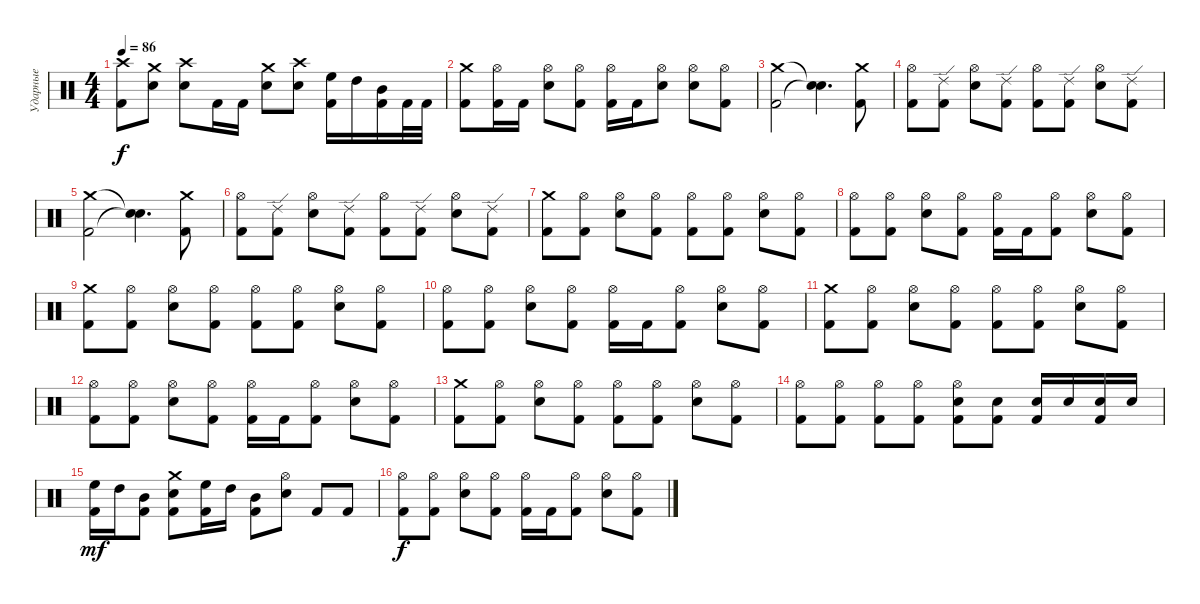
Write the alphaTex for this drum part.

\track ("Ударные" "Ударные") {instrument percussion}
\staff {score}
\articulation defaults
\ts (4 4)
\tempo 86
\clef neutral
\ks c
("Crash high (hit)" "Kick (hit) 2").8{dy f} ("Crash medium (hit)" "Electric Snare (hit)").8 ("Crash high (hit)" "Electric Snare (hit)").8 "Kick (hit) 2".16 "Kick (hit) 2".16 ("Crash medium (hit)" "Electric Snare (hit)").8 ("Crash high (hit)" "Electric Snare (hit)").8 ("High Floor Tom (hit)" "Kick (hit) 2").16 "High Tom (hit)".16 ("Mid Tom (hit)" "Kick (hit) 2").16 "Kick (hit) 2".32 "Kick (hit) 2".32 |
("Crash medium (hit)" "Kick (hit) 2").8 ("Hi-Hat (open)" "Kick (hit) 2").16 "Kick (hit) 2".16 ("Hi-Hat (open)" "Electric Snare (hit)").8 ("Hi-Hat (open)" "Kick (hit) 2").8 ("Hi-Hat (open)" "Kick (hit) 2").16 "Kick (hit) 2".16 ("Hi-Hat (open)" "Electric Snare (hit)").8 ("Hi-Hat (open)" "Electric Snare (hit)").8 ("Hi-Hat (open)" "Kick (hit) 2").8 |
("Crash medium (hit)" "Kick (hit) 2").2 ("Snare (hit)"{t} "Snare (hit)"{t}).4{d} ("Crash medium (hit)" "Kick (hit) 2").8 |
("Hi-Hat (open)" "Kick (hit) 2").8 ("Ride (edge) 2" "Kick (hit) 2").8 ("Hi-Hat (open)" "Electric Snare (hit)").8 ("Ride (edge) 2" "Kick (hit) 2").8 ("Hi-Hat (open)" "Kick (hit) 2").8 ("Ride (edge) 2" "Kick (hit) 2").8 ("Hi-Hat (open)" "Electric Snare (hit)").8 ("Ride (edge) 2" "Kick (hit) 2").8 |
("Crash medium (hit)" "Kick (hit) 2").2 ("Snare (hit)"{t} "Snare (hit)"{t}).4{d} ("Crash medium (hit)" "Kick (hit) 2").8 |
("Hi-Hat (open)" "Kick (hit) 2").8 ("Ride (edge) 2" "Kick (hit) 2").8 ("Hi-Hat (open)" "Electric Snare (hit)").8 ("Ride (edge) 2" "Kick (hit) 2").8 ("Hi-Hat (open)" "Kick (hit) 2").8 ("Ride (edge) 2" "Kick (hit) 2").8 ("Hi-Hat (open)" "Electric Snare (hit)").8 ("Ride (edge) 2" "Kick (hit) 2").8 |
("Crash medium (hit)" "Kick (hit) 2").8 ("Hi-Hat (open)" "Kick (hit) 2").8 ("Hi-Hat (open)" "Electric Snare (hit)").8 ("Hi-Hat (open)" "Kick (hit) 2").8 ("Hi-Hat (open)" "Kick (hit) 2").8 ("Hi-Hat (open)" "Kick (hit) 2").8 ("Hi-Hat (open)" "Electric Snare (hit)").8 ("Hi-Hat (open)" "Kick (hit) 2").8 |
("Hi-Hat (open)" "Kick (hit) 2").8 ("Hi-Hat (open)" "Kick (hit) 2").8 ("Hi-Hat (open)" "Electric Snare (hit)").8 ("Hi-Hat (open)" "Kick (hit) 2").8 ("Hi-Hat (open)" "Kick (hit) 2").16 "Kick (hit) 2".16 ("Hi-Hat (open)" "Kick (hit) 2").8 ("Hi-Hat (open)" "Electric Snare (hit)").8 ("Hi-Hat (open)" "Kick (hit) 2").8 |
("Crash medium (hit)" "Kick (hit) 2").8 ("Hi-Hat (open)" "Kick (hit) 2").8 ("Hi-Hat (open)" "Electric Snare (hit)").8 ("Hi-Hat (open)" "Kick (hit) 2").8 ("Hi-Hat (open)" "Kick (hit) 2").8 ("Hi-Hat (open)" "Kick (hit) 2").8 ("Hi-Hat (open)" "Electric Snare (hit)").8 ("Hi-Hat (open)" "Kick (hit) 2").8 |
("Hi-Hat (open)" "Kick (hit) 2").8 ("Hi-Hat (open)" "Kick (hit) 2").8 ("Hi-Hat (open)" "Electric Snare (hit)").8 ("Hi-Hat (open)" "Kick (hit) 2").8 ("Hi-Hat (open)" "Kick (hit) 2").16 "Kick (hit) 2".16 ("Hi-Hat (open)" "Kick (hit) 2").8 ("Hi-Hat (open)" "Electric Snare (hit)").8 ("Hi-Hat (open)" "Kick (hit) 2").8 |
("Crash medium (hit)" "Kick (hit) 2").8 ("Hi-Hat (open)" "Kick (hit) 2").8 ("Hi-Hat (open)" "Electric Snare (hit)").8 ("Hi-Hat (open)" "Kick (hit) 2").8 ("Hi-Hat (open)" "Kick (hit) 2").8 ("Hi-Hat (open)" "Kick (hit) 2").8 ("Hi-Hat (open)" "Electric Snare (hit)").8 ("Hi-Hat (open)" "Kick (hit) 2").8 |
("Hi-Hat (open)" "Kick (hit) 2").8 ("Hi-Hat (open)" "Kick (hit) 2").8 ("Hi-Hat (open)" "Electric Snare (hit)").8 ("Hi-Hat (open)" "Kick (hit) 2").8 ("Hi-Hat (open)" "Kick (hit) 2").16 "Kick (hit) 2".16 ("Hi-Hat (open)" "Kick (hit) 2").8 ("Hi-Hat (open)" "Electric Snare (hit)").8 ("Hi-Hat (open)" "Kick (hit) 2").8 |
("Crash medium (hit)" "Kick (hit) 2").8 ("Hi-Hat (open)" "Kick (hit) 2").8 ("Hi-Hat (open)" "Electric Snare (hit)").8 ("Hi-Hat (open)" "Kick (hit) 2").8 ("Hi-Hat (open)" "Kick (hit) 2").8 ("Hi-Hat (open)" "Kick (hit) 2").8 ("Hi-Hat (open)" "Electric Snare (hit)").8 ("Hi-Hat (open)" "Kick (hit) 2").8 |
("Hi-Hat (open)" "Kick (hit) 2").8 ("Hi-Hat (open)" "Kick (hit) 2").8 ("Hi-Hat (open)" "Kick (hit) 2").8 ("Hi-Hat (open)" "Kick (hit) 2").8 ("Hi-Hat (open)" "Electric Snare (hit)" "Kick (hit) 2").8 ("Electric Snare (hit)" "Kick (hit) 2").8 ("Electric Snare (hit)" "Kick (hit) 2").16 "Electric Snare (hit)".16 ("Electric Snare (hit)" "Kick (hit) 2").16 "Electric Snare (hit)".16 |
("High Floor Tom (hit)" "Kick (hit) 2").16{dy mf} "High Tom (hit)".16 ("Mid Tom (hit)" "Kick (hit) 2").8 ("Crash medium (hit)" "Electric Snare (hit)" "Kick (hit) 2").8 ("High Floor Tom (hit)" "Kick (hit) 2").16 "High Tom (hit)".16 ("Mid Tom (hit)" "Kick (hit) 2").8 ("Hi-Hat (open)" "Electric Snare (hit)").8 "Kick (hit) 2".8 "Kick (hit) 2".8 |
("Hi-Hat (open)" "Kick (hit) 2").8{dy f} ("Hi-Hat (open)" "Kick (hit) 2").8 ("Hi-Hat (open)" "Electric Snare (hit)").8 ("Hi-Hat (open)" "Kick (hit) 2").8 ("Hi-Hat (open)" "Kick (hit) 2").16 "Kick (hit) 2".16 ("Hi-Hat (open)" "Kick (hit) 2").8 ("Hi-Hat (open)" "Electric Snare (hit)").8 ("Hi-Hat (open)" "Kick (hit) 2").8
